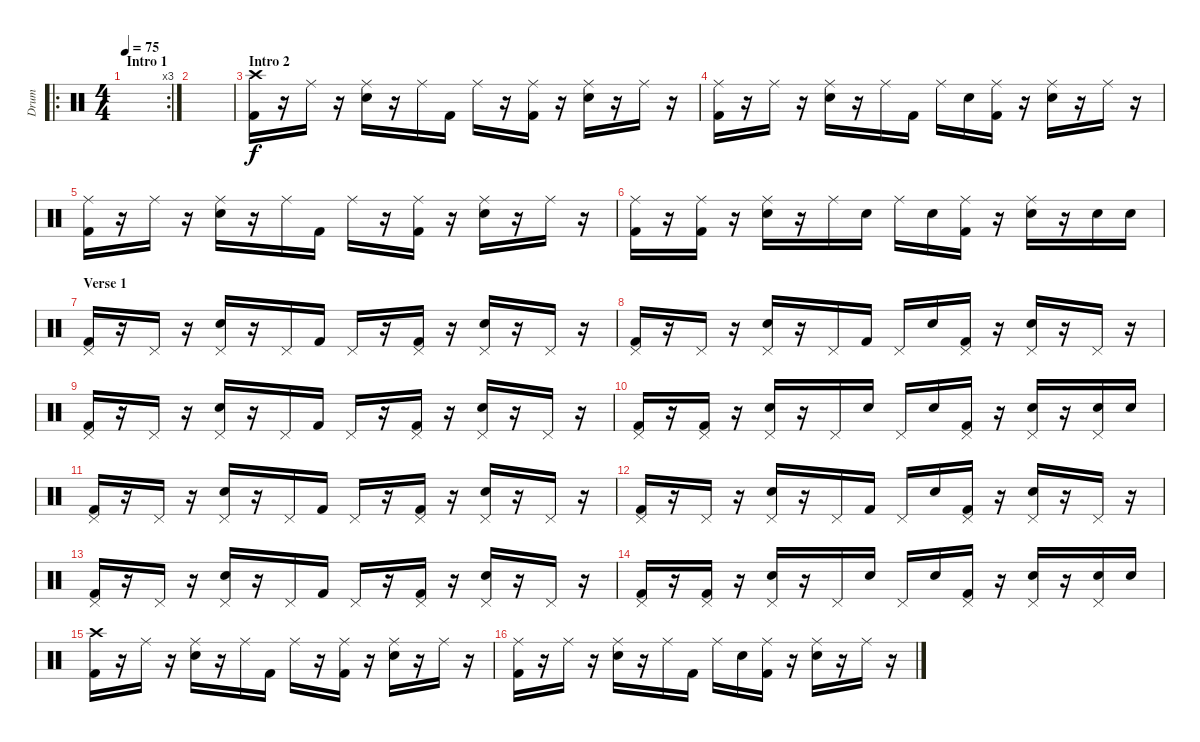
\track ("Drum" "Drum") {instrument percussion}
\staff {score}
\articulation defaults
\ro
\rc 3
\ts (4 4)
\section ("" "Intro 1")
\tempo 75
\clef neutral
\ks c
|
|
\section ("" "Intro 2")
("Crash high (hit)" "Kick (hit) 2").16 r.16 "Ride (middle)".16 r.16 ("Ride (middle)" "Electric Snare (hit)").16 r.16 "Ride (middle)".16 "Kick (hit) 2".16 "Ride (middle)".16 r.16 ("Ride (middle)" "Kick (hit) 2").16 r.16 ("Ride (middle)" "Electric Snare (hit)").16 r.16 "Ride (middle)".16 r.16 |
("Ride (middle)" "Kick (hit) 2").16 r.16 "Ride (middle)".16 r.16 ("Ride (middle)" "Electric Snare (hit)").16 r.16 "Ride (middle)".16 "Kick (hit) 2".16 "Ride (middle)".16 "Electric Snare (hit)".16 ("Ride (middle)" "Kick (hit) 2").16 r.16 ("Ride (middle)" "Electric Snare (hit)").16 r.16 "Ride (middle)".16 r.16 |
("Ride (middle)" "Kick (hit) 2").16 r.16 "Ride (middle)".16 r.16 ("Ride (middle)" "Electric Snare (hit)").16 r.16 "Ride (middle)".16 "Kick (hit) 2".16 "Ride (middle)".16 r.16 ("Ride (middle)" "Kick (hit) 2").16 r.16 ("Ride (middle)" "Electric Snare (hit)").16 r.16 "Ride (middle)".16 r.16 |
("Ride (middle)" "Kick (hit) 2").16 r.16 ("Ride (middle)" "Kick (hit) 2").16 r.16 ("Ride (middle)" "Electric Snare (hit)").16 r.16 "Ride (middle)".16 "Electric Snare (hit)".16 "Ride (middle)".16 "Electric Snare (hit)".16 ("Ride (middle)" "Kick (hit) 2").16 r.16 ("Ride (middle)" "Electric Snare (hit)").16 r.16 "Electric Snare (hit)".16 "Electric Snare (hit)".16 |
\section ("" "Verse 1")
("Pedal Hi-Hat (hit)" "Kick (hit) 2").16 r.16 "Pedal Hi-Hat (hit)".16 r.16 ("Pedal Hi-Hat (hit)" "Electric Snare (hit)").16 r.16 "Pedal Hi-Hat (hit)".16 "Kick (hit) 2".16 "Pedal Hi-Hat (hit)".16 r.16 ("Pedal Hi-Hat (hit)" "Kick (hit) 2").16 r.16 ("Pedal Hi-Hat (hit)" "Electric Snare (hit)").16 r.16 "Pedal Hi-Hat (hit)".16 r.16 |
("Pedal Hi-Hat (hit)" "Kick (hit) 2").16 r.16 "Pedal Hi-Hat (hit)".16 r.16 ("Pedal Hi-Hat (hit)" "Electric Snare (hit)").16 r.16 "Pedal Hi-Hat (hit)".16 "Kick (hit) 2".16 "Pedal Hi-Hat (hit)".16 "Electric Snare (hit)".16 ("Pedal Hi-Hat (hit)" "Kick (hit) 2").16 r.16 ("Pedal Hi-Hat (hit)" "Electric Snare (hit)").16 r.16 "Pedal Hi-Hat (hit)".16 r.16 |
("Pedal Hi-Hat (hit)" "Kick (hit) 2").16 r.16 "Pedal Hi-Hat (hit)".16 r.16 ("Pedal Hi-Hat (hit)" "Electric Snare (hit)").16 r.16 "Pedal Hi-Hat (hit)".16 "Kick (hit) 2".16 "Pedal Hi-Hat (hit)".16 r.16 ("Pedal Hi-Hat (hit)" "Kick (hit) 2").16 r.16 ("Pedal Hi-Hat (hit)" "Electric Snare (hit)").16 r.16 "Pedal Hi-Hat (hit)".16 r.16 |
("Pedal Hi-Hat (hit)" "Kick (hit) 2").16 r.16 ("Pedal Hi-Hat (hit)" "Kick (hit) 2").16 r.16 ("Pedal Hi-Hat (hit)" "Electric Snare (hit)").16 r.16 "Pedal Hi-Hat (hit)".16 "Electric Snare (hit)".16 "Pedal Hi-Hat (hit)".16 "Electric Snare (hit)".16 ("Pedal Hi-Hat (hit)" "Kick (hit) 2").16 r.16 ("Pedal Hi-Hat (hit)" "Electric Snare (hit)").16 r.16 ("Pedal Hi-Hat (hit)" "Electric Snare (hit)").16 "Electric Snare (hit)".16 |
("Pedal Hi-Hat (hit)" "Kick (hit) 2").16 r.16 "Pedal Hi-Hat (hit)".16 r.16 ("Pedal Hi-Hat (hit)" "Electric Snare (hit)").16 r.16 "Pedal Hi-Hat (hit)".16 "Kick (hit) 2".16 "Pedal Hi-Hat (hit)".16 r.16 ("Pedal Hi-Hat (hit)" "Kick (hit) 2").16 r.16 ("Pedal Hi-Hat (hit)" "Electric Snare (hit)").16 r.16 "Pedal Hi-Hat (hit)".16 r.16 |
("Pedal Hi-Hat (hit)" "Kick (hit) 2").16 r.16 "Pedal Hi-Hat (hit)".16 r.16 ("Pedal Hi-Hat (hit)" "Electric Snare (hit)").16 r.16 "Pedal Hi-Hat (hit)".16 "Kick (hit) 2".16 "Pedal Hi-Hat (hit)".16 "Electric Snare (hit)".16 ("Pedal Hi-Hat (hit)" "Kick (hit) 2").16 r.16 ("Pedal Hi-Hat (hit)" "Electric Snare (hit)").16 r.16 "Pedal Hi-Hat (hit)".16 r.16 |
("Pedal Hi-Hat (hit)" "Kick (hit) 2").16 r.16 "Pedal Hi-Hat (hit)".16 r.16 ("Pedal Hi-Hat (hit)" "Electric Snare (hit)").16 r.16 "Pedal Hi-Hat (hit)".16 "Kick (hit) 2".16 "Pedal Hi-Hat (hit)".16 r.16 ("Pedal Hi-Hat (hit)" "Kick (hit) 2").16 r.16 ("Pedal Hi-Hat (hit)" "Electric Snare (hit)").16 r.16 "Pedal Hi-Hat (hit)".16 r.16 |
("Pedal Hi-Hat (hit)" "Kick (hit) 2").16 r.16 ("Pedal Hi-Hat (hit)" "Kick (hit) 2").16 r.16 ("Pedal Hi-Hat (hit)" "Electric Snare (hit)").16 r.16 "Pedal Hi-Hat (hit)".16 "Electric Snare (hit)".16 "Pedal Hi-Hat (hit)".16 "Electric Snare (hit)".16 ("Pedal Hi-Hat (hit)" "Kick (hit) 2").16 r.16 ("Pedal Hi-Hat (hit)" "Electric Snare (hit)").16 r.16 ("Pedal Hi-Hat (hit)" "Electric Snare (hit)").16 "Electric Snare (hit)".16 |
("Crash high (hit)" "Kick (hit) 2").16 r.16 "Ride (middle)".16 r.16 ("Ride (middle)" "Electric Snare (hit)").16 r.16 "Ride (middle)".16 "Kick (hit) 2".16 "Ride (middle)".16 r.16 ("Ride (middle)" "Kick (hit) 2").16 r.16 ("Ride (middle)" "Electric Snare (hit)").16 r.16 "Ride (middle)".16 r.16 |
("Ride (middle)" "Kick (hit) 2").16 r.16 "Ride (middle)".16 r.16 ("Ride (middle)" "Electric Snare (hit)").16 r.16 "Ride (middle)".16 "Kick (hit) 2".16 "Ride (middle)".16 "Electric Snare (hit)".16 ("Ride (middle)" "Kick (hit) 2").16 r.16 ("Ride (middle)" "Electric Snare (hit)").16 r.16 "Ride (middle)".16 r.16
